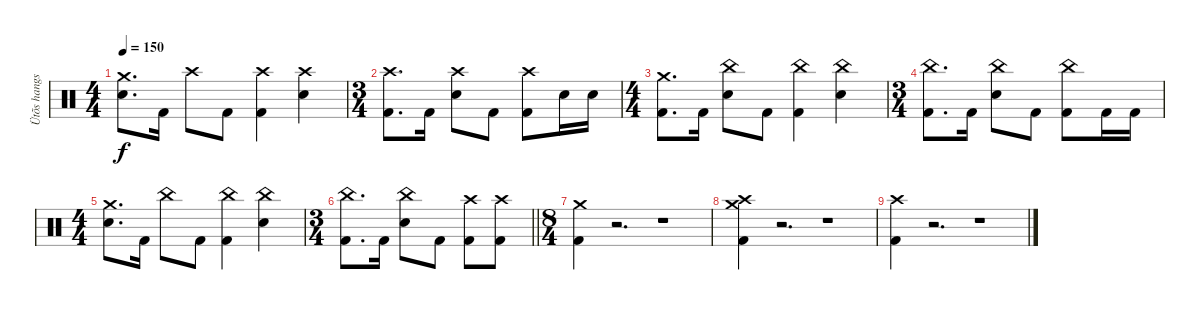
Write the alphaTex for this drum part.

\track ("Ütõs hangszer" "Ütõs hangs") {instrument percussion}
\staff {score}
\articulation defaults
\ts (4 4)
\tempo 150
\clef neutral
\ks c
("Crash medium (hit)" "Electric Snare (hit)").8{d dy f} "Kick (hit) 2".16 "Crash high (hit)".8 "Kick (hit) 2".8 ("Crash high (hit)" "Kick (hit) 2").4 ("Crash high (hit)" "Electric Snare (hit)").4 |
\ts (3 4)
("Crash high (hit)" "Kick (hit) 2").8{d} "Kick (hit) 2".16 ("Crash high (hit)" "Electric Snare (hit)").8 "Kick (hit) 2".8 ("Crash high (hit)" "Kick (hit) 2").8 "Electric Snare (hit)".16 "Electric Snare (hit)".16 |
\ts (4 4)
("Crash medium (hit)" "Kick (hit) 2").8{d} "Kick (hit) 2".16 ("China (hit)" "Electric Snare (hit)").8 "Kick (hit) 2".8 ("China (hit)" "Kick (hit) 2").4 ("China (hit)" "Electric Snare (hit)").4 |
\ts (3 4)
("China (hit)" "Kick (hit) 2").8{d} "Kick (hit) 2".16 ("China (hit)" "Electric Snare (hit)").8 "Kick (hit) 2".8 ("China (hit)" "Kick (hit) 2").8 "Kick (hit) 2".16 "Kick (hit) 2".16 |
\ts (4 4)
("Crash medium (hit)" "Electric Snare (hit)").8{d} "Kick (hit) 2".16 "China (hit)".8 "Kick (hit) 2".8 ("China (hit)" "Kick (hit) 2").4 ("China (hit)" "Electric Snare (hit)").4 |
\ts (3 4)
\barLineRight lightlight
("China (hit)" "Kick (hit) 2").8{d} "Kick (hit) 2".16 ("China (hit)" "Electric Snare (hit)").8 "Kick (hit) 2".8 ("Crash high (hit)" "Kick (hit) 2").8 ("Crash high (hit)" "Kick (hit) 2").8 |
\ts (8 4)
("Crash medium (hit)" "Kick (hit) 2").4 r.2{d} r.1 |
("Crash high (hit)" "Crash medium (hit)" "Kick (hit) 2").4 r.2{d} r.1 |
("Crash high (hit)" "Kick (hit) 2").4 r.2{d} r.1
